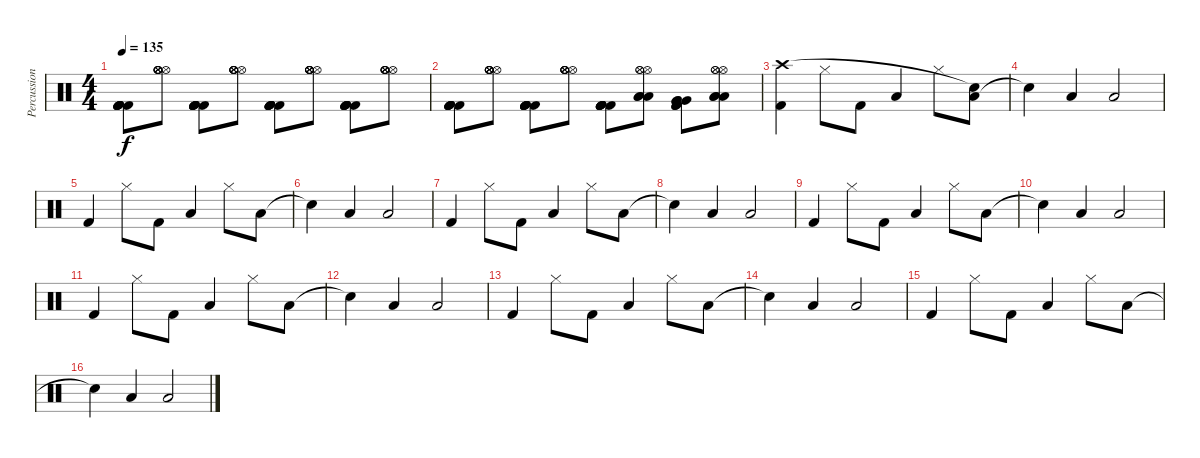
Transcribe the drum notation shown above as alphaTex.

\track ("Percussion" "Percussion") {instrument percussion}
\staff {score}
\articulation defaults
\ts (4 4)
\tempo 135
\clef neutral
\ks c
("Kick (hit) 2" "Kick (hit) 2" "Kick (hit) 2" "Kick (hit) 2" "Kick (hit) 2" "Kick (hit) 2").8{dy f} ("Hi-Hat (open)" "Hi-Hat (open)" "Hi-Hat (open)" "Hi-Hat (open)" "Hi-Hat (open)" "Hi-Hat (open)").8 ("Kick (hit) 2" "Kick (hit) 2" "Kick (hit) 2" "Kick (hit) 2" "Kick (hit) 2" "Kick (hit) 2").8 ("Hi-Hat (open)" "Hi-Hat (open)" "Hi-Hat (open)" "Hi-Hat (open)" "Hi-Hat (open)" "Hi-Hat (open)").8 ("Kick (hit) 2" "Kick (hit) 2" "Kick (hit) 2" "Kick (hit) 2" "Kick (hit) 2" "Kick (hit) 2").8 ("Hi-Hat (open)" "Hi-Hat (open)" "Hi-Hat (open)" "Hi-Hat (open)" "Hi-Hat (open)" "Hi-Hat (open)").8 ("Kick (hit) 2" "Kick (hit) 2" "Kick (hit) 2" "Kick (hit) 2" "Kick (hit) 2" "Kick (hit) 2").8 ("Hi-Hat (open)" "Hi-Hat (open)" "Hi-Hat (open)" "Hi-Hat (open)" "Hi-Hat (open)" "Hi-Hat (open)").8 |
("Kick (hit) 2" "Kick (hit) 2" "Kick (hit) 2" "Kick (hit) 2" "Kick (hit) 2" "Kick (hit) 2").8 ("Hi-Hat (open)" "Hi-Hat (open)" "Hi-Hat (open)" "Hi-Hat (open)" "Hi-Hat (open)" "Hi-Hat (open)").8 ("Kick (hit) 2" "Kick (hit) 2" "Kick (hit) 2" "Kick (hit) 2" "Kick (hit) 2" "Kick (hit) 2").8 ("Hi-Hat (open)" "Hi-Hat (open)" "Hi-Hat (open)" "Hi-Hat (open)" "Hi-Hat (open)" "Hi-Hat (open)").8 ("Kick (hit) 2" "Kick (hit) 2" "Kick (hit) 2" "Kick (hit) 2" "Kick (hit) 2" "Kick (hit) 2").8 ("Hi-Hat (open)" "Hi-Hat (open)" "Hi-Hat (open)" "Low Tom (hit)" "Low Tom (hit)" "Low Tom (hit)").8 ("Kick (hit) 2" "Kick (hit) 2" "Kick (hit) 2" "Very Low Tom (hit)" "Very Low Tom (hit)" "Very Low Tom (hit)").8 ("Hi-Hat (open)" "Hi-Hat (open)" "Hi-Hat (open)" "Low Floor Tom (hit)" "Low Floor Tom (hit)" "Low Floor Tom (hit)").8 |
("Kick (hit) 2" "Crash high (hit)").4 "Hi-Hat (closed)".8 "Kick (hit) 2".8 "Low Tom (hit)".4 "Hi-Hat (closed)".8 ("Low Floor Tom (hit)" "Snare (hit)"{t}).8 |
"Snare (hit)"{t}.4 "Low Floor Tom (hit)".4 "Low Tom (hit)".2 |
"Kick (hit) 2".4 "Hi-Hat (closed)".8 "Kick (hit) 2".8 "Low Tom (hit)".4 "Hi-Hat (closed)".8 "Low Floor Tom (hit)".8 |
"Snare (hit)"{t}.4 "Low Floor Tom (hit)".4 "Low Tom (hit)".2 |
"Kick (hit) 2".4 "Hi-Hat (closed)".8 "Kick (hit) 2".8 "Low Tom (hit)".4 "Hi-Hat (closed)".8 "Low Floor Tom (hit)".8 |
"Snare (hit)"{t}.4 "Low Floor Tom (hit)".4 "Low Tom (hit)".2 |
"Kick (hit) 2".4 "Hi-Hat (closed)".8 "Kick (hit) 2".8 "Low Tom (hit)".4 "Hi-Hat (closed)".8 "Low Floor Tom (hit)".8 |
"Snare (hit)"{t}.4 "Low Floor Tom (hit)".4 "Low Tom (hit)".2 |
"Kick (hit) 2".4 "Hi-Hat (closed)".8 "Kick (hit) 2".8 "Low Tom (hit)".4 "Hi-Hat (closed)".8 "Low Floor Tom (hit)".8 |
"Snare (hit)"{t}.4 "Low Floor Tom (hit)".4 "Low Tom (hit)".2 |
"Kick (hit) 2".4 "Hi-Hat (closed)".8 "Kick (hit) 2".8 "Low Tom (hit)".4 "Hi-Hat (closed)".8 "Low Floor Tom (hit)".8 |
"Snare (hit)"{t}.4 "Low Floor Tom (hit)".4 "Low Tom (hit)".2 |
"Kick (hit) 2".4 "Hi-Hat (closed)".8 "Kick (hit) 2".8 "Low Tom (hit)".4 "Hi-Hat (closed)".8 "Low Floor Tom (hit)".8 |
"Snare (hit)"{t}.4 "Low Floor Tom (hit)".4 "Low Tom (hit)".2
